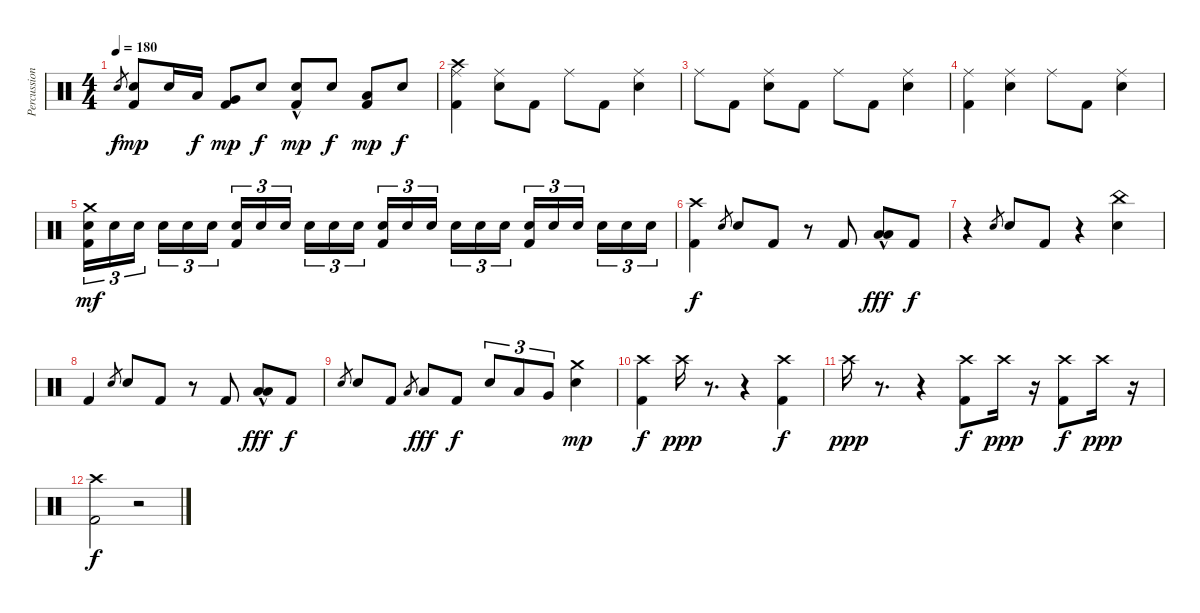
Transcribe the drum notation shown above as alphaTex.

\track ("Percussion" "Percussion") {instrument percussion}
\staff {score}
\articulation defaults
\ts (4 4)
\tempo 180
\clef neutral
\ks c "Electric Snare (hit)".8{gr dy f}
("Electric Snare (hit)" "Kick (hit) 2").8{dy mp} "Electric Snare (hit)".16 "Low Tom (hit)".16{dy f} ("Very Low Tom (hit)" "Kick (hit) 2").8{dy mp} "Electric Snare (hit)".8{dy f} ("Electric Snare (hit)"{hac} "Kick (hit) 2").8{dy mp} "Electric Snare (hit)".8{dy f} ("Low Tom (hit)" "Kick (hit) 2").8{dy mp} "Electric Snare (hit)".8{dy f} |
("Ride (middle)" "Crash high (hit)" "Kick (hit) 2").4 ("Ride (middle)" "Electric Snare (hit)").8 "Kick (hit) 2".8 "Ride (middle)".8 "Kick (hit) 2".8 ("Ride (middle)" "Electric Snare (hit)").4 |
"Ride (middle)".8 "Kick (hit) 2".8 ("Ride (middle)" "Electric Snare (hit)").8 "Kick (hit) 2".8 "Ride (middle)".8 "Kick (hit) 2".8 ("Ride (middle)" "Electric Snare (hit)").4 |
("Ride (middle)" "Kick (hit) 2").4 ("Ride (middle)" "Electric Snare (hit)").4 "Ride (middle)".8 "Kick (hit) 2".8 ("Ride (middle)" "Electric Snare (hit)").4 |
("Crash medium (hit)" "Electric Snare (hit)" "Kick (hit) 2").16{tu (3 2) dy mf} "Electric Snare (hit)".16{tu (3 2)} "Electric Snare (hit)".16{tu (3 2) beam splitsecondary} "Electric Snare (hit)".16{tu (3 2)} "Electric Snare (hit)".16{tu (3 2)} "Electric Snare (hit)".16{tu (3 2)} ("Electric Snare (hit)" "Kick (hit) 2").16{tu (3 2)} "Electric Snare (hit)".16{tu (3 2)} "Electric Snare (hit)".16{tu (3 2) beam splitsecondary} "Electric Snare (hit)".16{tu (3 2)} "Electric Snare (hit)".16{tu (3 2)} "Electric Snare (hit)".16{tu (3 2)} ("Electric Snare (hit)" "Kick (hit) 2").16{tu (3 2)} "Electric Snare (hit)".16{tu (3 2)} "Electric Snare (hit)".16{tu (3 2) beam splitsecondary} "Electric Snare (hit)".16{tu (3 2)} "Electric Snare (hit)".16{tu (3 2)} "Electric Snare (hit)".16{tu (3 2)} ("Electric Snare (hit)" "Kick (hit) 2").16{tu (3 2)} "Electric Snare (hit)".16{tu (3 2)} "Electric Snare (hit)".16{tu (3 2) beam splitsecondary} "Electric Snare (hit)".16{tu (3 2)} "Electric Snare (hit)".16{tu (3 2)} "Electric Snare (hit)".16{tu (3 2)} |
("Crash high (hit)" "Kick (hit) 2").4{dy f} "Electric Snare (hit)".8{gr} "Electric Snare (hit)".8 "Kick (hit) 2".8 r.8 "Kick (hit) 2".8 ("Low Tom (hit)" "Low Floor Tom (hit)"{hac}).8{dy fff} "Kick (hit) 2".8{dy f} |
r.4 "Electric Snare (hit)".8{gr} "Electric Snare (hit)".8 "Kick (hit) 2".8 r.4 ("China (hit)" "Electric Snare (hit)").4 |
"Kick (hit) 2".4 "Electric Snare (hit)".8{gr} "Electric Snare (hit)".8 "Kick (hit) 2".8 r.8 "Kick (hit) 2".8 ("Low Tom (hit)" "Low Floor Tom (hit)"{hac}).8{dy fff} "Kick (hit) 2".8{dy f} |
"Electric Snare (hit)".8{gr} "Electric Snare (hit)".8 "Kick (hit) 2".8 "Low Tom (hit)".8{gr} "Low Tom (hit)".8{dy fff} "Kick (hit) 2".8{dy f} "Electric Snare (hit)".8{tu (3 2)} "Low Tom (hit)".8{tu (3 2)} "Very Low Tom (hit)".8{tu (3 2)} ("Crash medium (hit)" "Electric Snare (hit)").4{dy mp} |
("Crash high (hit)" "Kick (hit) 2").4{dy f} "Crash high (hit)".16{dy ppp} r.8{d} r.4 ("Crash high (hit)" "Kick (hit) 2").4{dy f} |
"Crash high (hit)".16{dy ppp} r.8{d} r.4 ("Crash high (hit)" "Kick (hit) 2").8{dy f} "Crash high (hit)".16{dy ppp} r.16 ("Crash high (hit)" "Kick (hit) 2").8{dy f} "Crash high (hit)".16{dy ppp} r.16 |
("Crash high (hit)" "Kick (hit) 2").2{dy f} r.2
